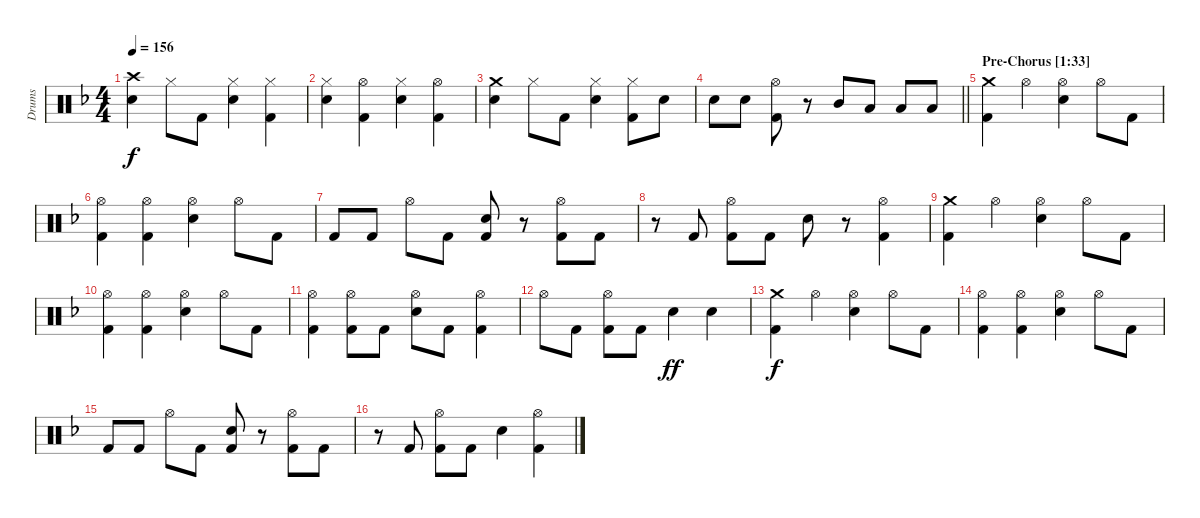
\track ("Drums" "Drums") {instrument percussion}
\staff {score}
\articulation defaults
\ts (4 4)
\tempo 156
\clef neutral
\ks dminor
("Crash high (hit)" "Snare (hit) 2").4{dy f} "Hi-Hat (closed)".8 "Kick (hit) 2".8 ("Hi-Hat (closed)" "Snare (hit) 2").4 ("Hi-Hat (closed)" "Kick (hit) 2").4 |
("Hi-Hat (closed)" "Snare (hit) 2").4 ("Hi-Hat (open)" "Kick (hit) 2").4 ("Hi-Hat (closed)" "Snare (hit) 2").4 ("Hi-Hat (open)" "Kick (hit) 2").4 |
("Crash medium (hit)" "Snare (hit) 2").4 "Hi-Hat (closed)".8 "Kick (hit) 2".8 ("Hi-Hat (closed)" "Snare (hit) 2").4 ("Hi-Hat (closed)" "Kick (hit) 2").8 "Snare (hit) 2".8 |
\barLineRight lightlight "Snare (hit) 2".8 "Snare (hit) 2".8
("Hi-Hat (open)" "Kick (hit) 2").8 r.8 "Mid Tom (hit)".8 "Low Tom (hit)".8 "Low Floor Tom (hit)".8 "Low Floor Tom (hit)".8 |
\section ("" "Pre-Chorus [1:33]")
("Crash medium (hit)" "Kick (hit) 2").4 "Hi-Hat (open)".4 ("Hi-Hat (open)" "Snare (hit) 2").4 "Hi-Hat (open)".8 "Kick (hit) 2".8 |
("Hi-Hat (open)" "Kick (hit) 2").4 ("Hi-Hat (open)" "Kick (hit) 2").4 ("Hi-Hat (open)" "Snare (hit) 2").4 "Hi-Hat (open)".8 "Kick (hit) 2".8 |
"Kick (hit) 2".8 "Kick (hit) 2".8 "Hi-Hat (open)".8 "Kick (hit) 2".8 ("Snare (hit) 2" "Kick (hit) 2").8 r.8 ("Hi-Hat (open)" "Kick (hit) 2").8 "Kick (hit) 2".8 |
r.8 "Kick (hit) 2".8 ("Hi-Hat (open)" "Kick (hit) 2").8 "Kick (hit) 2".8 "Snare (hit) 2".8 r.8 ("Hi-Hat (open)" "Kick (hit) 2").4 |
("Crash medium (hit)" "Kick (hit) 2").4 "Hi-Hat (open)".4 ("Hi-Hat (open)" "Snare (hit) 2").4 "Hi-Hat (open)".8 "Kick (hit) 2".8 |
("Hi-Hat (open)" "Kick (hit) 2").4 ("Hi-Hat (open)" "Kick (hit) 2").4 ("Hi-Hat (open)" "Snare (hit) 2").4 "Hi-Hat (open)".8 "Kick (hit) 2".8 |
("Hi-Hat (open)" "Kick (hit) 2").4 ("Hi-Hat (open)" "Kick (hit) 2").8 "Kick (hit) 2".8 ("Hi-Hat (open)" "Snare (hit) 2").8 "Kick (hit) 2".8 ("Hi-Hat (open)" "Kick (hit) 2").4 |
"Hi-Hat (open)".8 "Kick (hit) 2".8 ("Hi-Hat (open)" "Kick (hit) 2").8 "Kick (hit) 2".8 "Snare (hit) 2".4{dy ff} "Snare (hit) 2".4 |
("Crash medium (hit)" "Kick (hit) 2").4{dy f} "Hi-Hat (open)".4 ("Hi-Hat (open)" "Snare (hit) 2").4 "Hi-Hat (open)".8 "Kick (hit) 2".8 |
("Hi-Hat (open)" "Kick (hit) 2").4 ("Hi-Hat (open)" "Kick (hit) 2").4 ("Hi-Hat (open)" "Snare (hit) 2").4 "Hi-Hat (open)".8 "Kick (hit) 2".8 |
"Kick (hit) 2".8 "Kick (hit) 2".8 "Hi-Hat (open)".8 "Kick (hit) 2".8 ("Snare (hit) 2" "Kick (hit) 2").8 r.8 ("Hi-Hat (open)" "Kick (hit) 2").8 "Kick (hit) 2".8 |
r.8 "Kick (hit) 2".8 ("Hi-Hat (open)" "Kick (hit) 2").8 "Kick (hit) 2".8 "Snare (hit) 2".4 ("Hi-Hat (open)" "Kick (hit) 2").4
